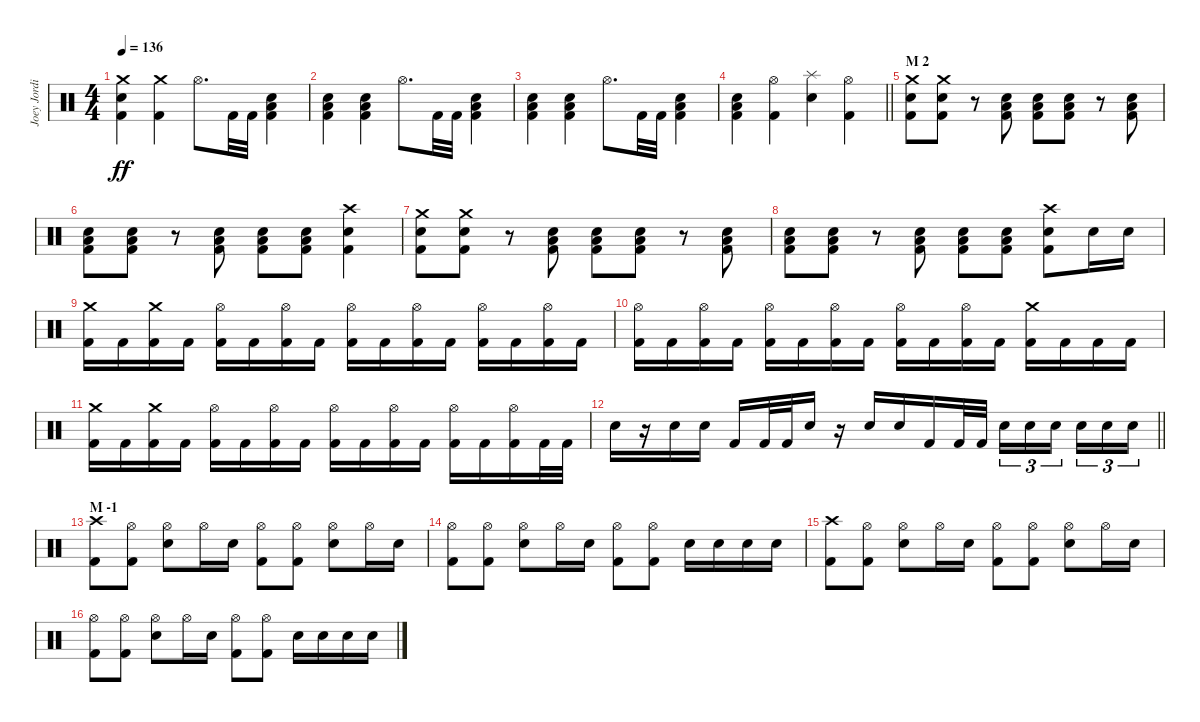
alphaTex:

\track ("Joey Jordison" "Joey Jordi") {instrument percussion}
\staff {score}
\articulation defaults
\ts (4 4)
\tempo 136
\clef neutral
\ks c
("Crash medium (hit)" "Electric Snare (hit)" "Kick (hit) 2").4{dy ff} ("Crash medium (hit)" "Kick (hit) 2").4 "Hi-Hat (open)".8{d} "Kick (hit) 2".32 "Kick (hit) 2".32 ("Electric Snare (hit)" "Low Floor Tom (hit)" "Kick (hit) 2").4 |
("Electric Snare (hit)" "Low Floor Tom (hit)" "Kick (hit) 2").4 ("Electric Snare (hit)" "Low Floor Tom (hit)" "Kick (hit) 2").4 "Hi-Hat (open)".8{d} "Kick (hit) 2".32 "Kick (hit) 2".32 ("Electric Snare (hit)" "Low Floor Tom (hit)" "Kick (hit) 2").4 |
("Electric Snare (hit)" "Low Floor Tom (hit)" "Kick (hit) 2").4 ("Electric Snare (hit)" "Low Floor Tom (hit)" "Kick (hit) 2").4 "Hi-Hat (open)".8{d} "Kick (hit) 2".32 "Kick (hit) 2".32 ("Electric Snare (hit)" "Low Floor Tom (hit)" "Kick (hit) 2").4 |
\barLineRight lightlight
("Electric Snare (hit)" "Low Floor Tom (hit)" "Kick (hit) 2").4 ("Hi-Hat (open)" "Kick (hit) 2").4 ("Splash (hit)" "Electric Snare (hit)").4 ("Hi-Hat (open)" "Kick (hit) 2").4 |
\section ("" "M 2")
("Crash medium (hit)" "Electric Snare (hit)" "Kick (hit) 2").8 ("Crash medium (hit)" "Electric Snare (hit)" "Kick (hit) 2").8 r.8 ("Electric Snare (hit)" "Low Floor Tom (hit)" "Kick (hit) 2").8 ("Electric Snare (hit)" "Low Floor Tom (hit)" "Kick (hit) 2").8 ("Electric Snare (hit)" "Low Floor Tom (hit)" "Kick (hit) 2").8 r.8 ("Electric Snare (hit)" "Low Floor Tom (hit)" "Kick (hit) 2").8 |
("Electric Snare (hit)" "Low Floor Tom (hit)" "Kick (hit) 2").8 ("Electric Snare (hit)" "Low Floor Tom (hit)" "Kick (hit) 2").8 r.8 ("Electric Snare (hit)" "Low Floor Tom (hit)" "Kick (hit) 2").8 ("Electric Snare (hit)" "Low Floor Tom (hit)" "Kick (hit) 2").8 ("Electric Snare (hit)" "Low Floor Tom (hit)" "Kick (hit) 2").8 ("Crash high (hit)" "Electric Snare (hit)" "Kick (hit) 2").4 |
("Crash medium (hit)" "Electric Snare (hit)" "Kick (hit) 2").8 ("Crash medium (hit)" "Electric Snare (hit)" "Kick (hit) 2").8 r.8 ("Electric Snare (hit)" "Low Floor Tom (hit)" "Kick (hit) 2").8 ("Electric Snare (hit)" "Low Floor Tom (hit)" "Kick (hit) 2").8 ("Electric Snare (hit)" "Low Floor Tom (hit)" "Kick (hit) 2").8 r.8 ("Electric Snare (hit)" "Low Floor Tom (hit)" "Kick (hit) 2").8 |
("Electric Snare (hit)" "Low Floor Tom (hit)" "Kick (hit) 2").8 ("Electric Snare (hit)" "Low Floor Tom (hit)" "Kick (hit) 2").8 r.8 ("Electric Snare (hit)" "Low Floor Tom (hit)" "Kick (hit) 2").8 ("Electric Snare (hit)" "Low Floor Tom (hit)" "Kick (hit) 2").8 ("Electric Snare (hit)" "Low Floor Tom (hit)" "Kick (hit) 2").8 ("Crash high (hit)" "Electric Snare (hit)" "Kick (hit) 2").8 "Electric Snare (hit)".16 "Electric Snare (hit)".16 |
("Crash medium (hit)" "Kick (hit) 2").16 "Kick (hit) 2".16 ("Crash medium (hit)" "Kick (hit) 2").16 "Kick (hit) 2".16 ("Hi-Hat (open)" "Kick (hit) 2").16 "Kick (hit) 2".16 ("Hi-Hat (open)" "Kick (hit) 2").16 "Kick (hit) 2".16 ("Hi-Hat (open)" "Kick (hit) 2").16 "Kick (hit) 2".16 ("Hi-Hat (open)" "Kick (hit) 2").16 "Kick (hit) 2".16 ("Hi-Hat (open)" "Kick (hit) 2").16 "Kick (hit) 2".16 ("Hi-Hat (open)" "Kick (hit) 2").16 "Kick (hit) 2".16 |
("Hi-Hat (open)" "Kick (hit) 2").16 "Kick (hit) 2".16 ("Hi-Hat (open)" "Kick (hit) 2").16 "Kick (hit) 2".16 ("Hi-Hat (open)" "Kick (hit) 2").16 "Kick (hit) 2".16 ("Hi-Hat (open)" "Kick (hit) 2").16 "Kick (hit) 2".16 ("Hi-Hat (open)" "Kick (hit) 2").16 "Kick (hit) 2".16 ("Hi-Hat (open)" "Kick (hit) 2").16 "Kick (hit) 2".16 ("Crash medium (hit)" "Kick (hit) 2").16 "Kick (hit) 2".16 "Kick (hit) 2".16 "Kick (hit) 2".16 |
("Crash medium (hit)" "Kick (hit) 2").16 "Kick (hit) 2".16 ("Crash medium (hit)" "Kick (hit) 2").16 "Kick (hit) 2".16 ("Hi-Hat (open)" "Kick (hit) 2").16 "Kick (hit) 2".16 ("Hi-Hat (open)" "Kick (hit) 2").16 "Kick (hit) 2".16 ("Hi-Hat (open)" "Kick (hit) 2").16 "Kick (hit) 2".16 ("Hi-Hat (open)" "Kick (hit) 2").16 "Kick (hit) 2".16 ("Hi-Hat (open)" "Kick (hit) 2").16 "Kick (hit) 2".16 ("Hi-Hat (open)" "Kick (hit) 2").16 "Kick (hit) 2".32 "Kick (hit) 2".32 |
\barLineRight lightlight "Electric Snare (hit)".16
r.16 "Electric Snare (hit)".16 "Electric Snare (hit)".16 "Kick (hit) 2".16 "Kick (hit) 2".32 "Kick (hit) 2".32 "Electric Snare (hit)".16 r.16 "Electric Snare (hit)".16 "Electric Snare (hit)".16 "Kick (hit) 2".16 "Kick (hit) 2".32 "Kick (hit) 2".32 "Electric Snare (hit)".16{tu (3 2)} "Electric Snare (hit)".16{tu (3 2)} "Electric Snare (hit)".16{tu (3 2) beam splitsecondary} "Electric Snare (hit)".16{tu (3 2)} "Electric Snare (hit)".16{tu (3 2)} "Electric Snare (hit)".16{tu (3 2)} |
\section ("" "M -1")
("Crash high (hit)" "Kick (hit) 2").8 ("Hi-Hat (open)" "Kick (hit) 2").8 ("Hi-Hat (open)" "Electric Snare (hit)").8 "Hi-Hat (open)".16 "Electric Snare (hit)".16 ("Hi-Hat (open)" "Kick (hit) 2").8 ("Hi-Hat (open)" "Kick (hit) 2").8 ("Hi-Hat (open)" "Electric Snare (hit)").8 "Hi-Hat (open)".16 "Electric Snare (hit)".16 |
("Hi-Hat (open)" "Kick (hit) 2").8 ("Hi-Hat (open)" "Kick (hit) 2").8 ("Hi-Hat (open)" "Electric Snare (hit)").8 "Hi-Hat (open)".16 "Electric Snare (hit)".16 ("Hi-Hat (open)" "Kick (hit) 2").8 ("Hi-Hat (open)" "Kick (hit) 2").8 "Electric Snare (hit)".16 "Electric Snare (hit)".16 "Electric Snare (hit)".16 "Electric Snare (hit)".16 |
("Crash high (hit)" "Kick (hit) 2").8 ("Hi-Hat (open)" "Kick (hit) 2").8 ("Hi-Hat (open)" "Electric Snare (hit)").8 "Hi-Hat (open)".16 "Electric Snare (hit)".16 ("Hi-Hat (open)" "Kick (hit) 2").8 ("Hi-Hat (open)" "Kick (hit) 2").8 ("Hi-Hat (open)" "Electric Snare (hit)").8 "Hi-Hat (open)".16 "Electric Snare (hit)".16 |
("Hi-Hat (open)" "Kick (hit) 2").8 ("Hi-Hat (open)" "Kick (hit) 2").8 ("Hi-Hat (open)" "Electric Snare (hit)").8 "Hi-Hat (open)".16 "Electric Snare (hit)".16 ("Hi-Hat (open)" "Kick (hit) 2").8 ("Hi-Hat (open)" "Kick (hit) 2").8 "Electric Snare (hit)".16 "Electric Snare (hit)".16 "Electric Snare (hit)".16 "Electric Snare (hit)".16
